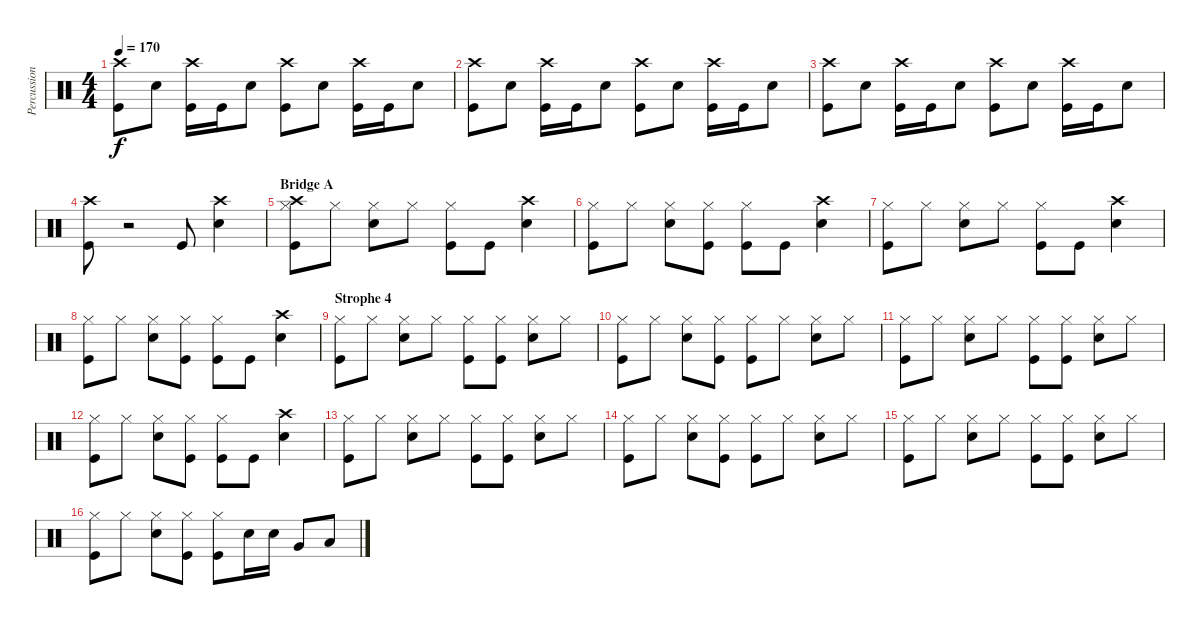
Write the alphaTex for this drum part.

\track ("Percussion" "Percussion") {instrument percussion}
\staff {score}
\articulation defaults
\ts (4 4)
\tempo 170
\clef neutral
\ks c
("Crash high (hit)" "Kick (hit)").8{dy f} "Electric Snare (hit)".8 ("Crash high (hit)" "Kick (hit)").16 "Kick (hit)".16 "Electric Snare (hit)".8 ("Crash high (hit)" "Kick (hit)").8 "Electric Snare (hit)".8 ("Crash high (hit)" "Kick (hit)").16 "Kick (hit)".16 "Electric Snare (hit)".8 |
("Crash high (hit)" "Kick (hit)").8 "Electric Snare (hit)".8 ("Crash high (hit)" "Kick (hit)").16 "Kick (hit)".16 "Electric Snare (hit)".8 ("Crash high (hit)" "Kick (hit)").8 "Electric Snare (hit)".8 ("Crash high (hit)" "Kick (hit)").16 "Kick (hit)".16 "Electric Snare (hit)".8 |
("Crash high (hit)" "Kick (hit)").8 "Electric Snare (hit)".8 ("Crash high (hit)" "Kick (hit)").16 "Kick (hit)".16 "Electric Snare (hit)".8 ("Crash high (hit)" "Kick (hit)").8 "Electric Snare (hit)".8 ("Crash high (hit)" "Kick (hit)").16 "Kick (hit)".16 "Electric Snare (hit)".8 |
("Crash high (hit)" "Kick (hit)").8 r.2 "Kick (hit)".8 ("Crash high (hit)" "Electric Snare (hit)").4 |
\section ("" "Bridge A")
("Hi-Hat (closed)" "Crash high (hit)" "Kick (hit)").8 "Hi-Hat (closed)".8 ("Hi-Hat (closed)" "Electric Snare (hit)").8 "Hi-Hat (closed)".8 ("Hi-Hat (closed)" "Kick (hit)").8 "Kick (hit)".8 ("Crash high (hit)" "Electric Snare (hit)").4 |
("Hi-Hat (closed)" "Kick (hit)").8 "Hi-Hat (closed)".8 ("Hi-Hat (closed)" "Electric Snare (hit)").8 ("Hi-Hat (closed)" "Kick (hit)").8 ("Hi-Hat (closed)" "Kick (hit)").8 "Kick (hit)".8 ("Crash high (hit)" "Electric Snare (hit)").4 |
("Hi-Hat (closed)" "Kick (hit)").8 "Hi-Hat (closed)".8 ("Hi-Hat (closed)" "Electric Snare (hit)").8 "Hi-Hat (closed)".8 ("Hi-Hat (closed)" "Kick (hit)").8 "Kick (hit)".8 ("Crash high (hit)" "Electric Snare (hit)").4 |
("Hi-Hat (closed)" "Kick (hit)").8 "Hi-Hat (closed)".8 ("Hi-Hat (closed)" "Electric Snare (hit)").8 ("Hi-Hat (closed)" "Kick (hit)").8 ("Hi-Hat (closed)" "Kick (hit)").8 "Kick (hit)".8 ("Crash high (hit)" "Electric Snare (hit)").4 |
\section ("" "Strophe 4")
("Hi-Hat (closed)" "Kick (hit)").8 "Hi-Hat (closed)".8 ("Hi-Hat (closed)" "Electric Snare (hit)").8 "Hi-Hat (closed)".8 ("Hi-Hat (closed)" "Kick (hit)").8 ("Hi-Hat (closed)" "Kick (hit)").8 ("Hi-Hat (closed)" "Electric Snare (hit)").8 "Hi-Hat (closed)".8 |
("Hi-Hat (closed)" "Kick (hit)").8 "Hi-Hat (closed)".8 ("Hi-Hat (closed)" "Electric Snare (hit)").8 ("Hi-Hat (closed)" "Kick (hit)").8 ("Hi-Hat (closed)" "Kick (hit)").8 "Hi-Hat (closed)".8 ("Hi-Hat (closed)" "Electric Snare (hit)").8 "Hi-Hat (closed)".8 |
("Hi-Hat (closed)" "Kick (hit)").8 "Hi-Hat (closed)".8 ("Hi-Hat (closed)" "Electric Snare (hit)").8 "Hi-Hat (closed)".8 ("Hi-Hat (closed)" "Kick (hit)").8 ("Hi-Hat (closed)" "Kick (hit)").8 ("Hi-Hat (closed)" "Electric Snare (hit)").8 "Hi-Hat (closed)".8 |
("Hi-Hat (closed)" "Kick (hit)").8 "Hi-Hat (closed)".8 ("Hi-Hat (closed)" "Electric Snare (hit)").8 ("Hi-Hat (closed)" "Kick (hit)").8 ("Hi-Hat (closed)" "Kick (hit)").8 "Kick (hit)".8 ("Crash high (hit)" "Electric Snare (hit)").4 |
("Hi-Hat (closed)" "Kick (hit)").8 "Hi-Hat (closed)".8 ("Hi-Hat (closed)" "Electric Snare (hit)").8 "Hi-Hat (closed)".8 ("Hi-Hat (closed)" "Kick (hit)").8 ("Hi-Hat (closed)" "Kick (hit)").8 ("Hi-Hat (closed)" "Electric Snare (hit)").8 "Hi-Hat (closed)".8 |
("Hi-Hat (closed)" "Kick (hit)").8 "Hi-Hat (closed)".8 ("Hi-Hat (closed)" "Electric Snare (hit)").8 ("Hi-Hat (closed)" "Kick (hit)").8 ("Hi-Hat (closed)" "Kick (hit)").8 "Hi-Hat (closed)".8 ("Hi-Hat (closed)" "Electric Snare (hit)").8 "Hi-Hat (closed)".8 |
("Hi-Hat (closed)" "Kick (hit)").8 "Hi-Hat (closed)".8 ("Hi-Hat (closed)" "Electric Snare (hit)").8 "Hi-Hat (closed)".8 ("Hi-Hat (closed)" "Kick (hit)").8 ("Hi-Hat (closed)" "Kick (hit)").8 ("Hi-Hat (closed)" "Electric Snare (hit)").8 "Hi-Hat (closed)".8 |
("Hi-Hat (closed)" "Kick (hit)").8 "Hi-Hat (closed)".8 ("Hi-Hat (closed)" "Electric Snare (hit)").8 ("Hi-Hat (closed)" "Kick (hit)").8 ("Hi-Hat (closed)" "Kick (hit)").8 "Electric Snare (hit)".16 "Electric Snare (hit)".16 "Very Low Tom (hit)".8 "Low Floor Tom (hit)".8
